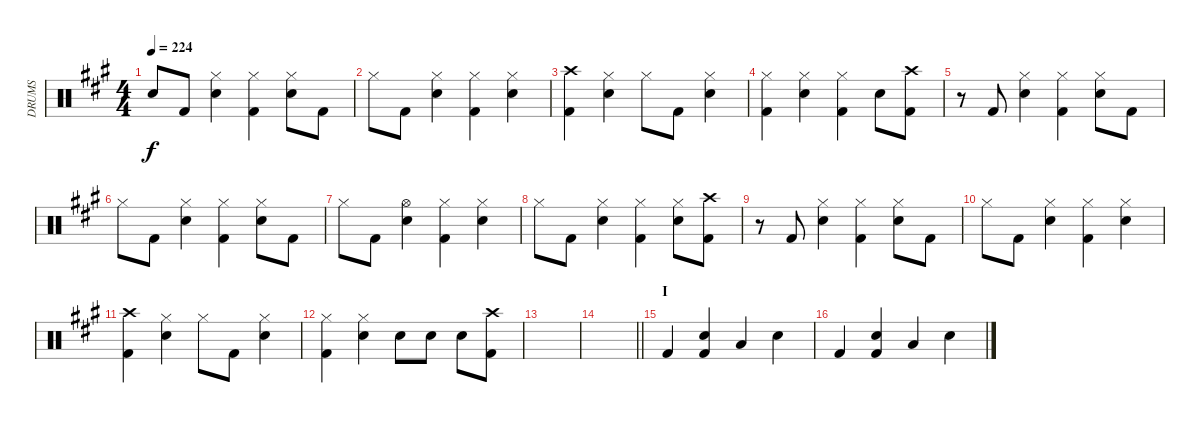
\track ("DRUMS" "DRUMS") {instrument percussion}
\staff {score}
\articulation defaults
\ts (4 4)
\tempo 224
\clef neutral
\ks a "Snare (hit)"{t}.8{dy f} "Kick (hit) 2".8
("Hi-Hat (closed)" "Snare (hit) 2").4 ("Hi-Hat (closed)" "Kick (hit) 2").4 ("Hi-Hat (closed)" "Snare (hit) 2").8 "Kick (hit) 2".8 |
"Hi-Hat (closed)".8 "Kick (hit) 2".8 ("Hi-Hat (closed)" "Snare (hit) 2").4 ("Hi-Hat (closed)" "Kick (hit) 2").4 ("Hi-Hat (closed)" "Snare (hit) 2").4 |
("Crash high (hit)" "Kick (hit) 2").4 ("Hi-Hat (closed)" "Snare (hit) 2").4 "Hi-Hat (closed)".8 "Kick (hit) 2".8 ("Hi-Hat (closed)" "Snare (hit) 2").4 |
("Hi-Hat (closed)" "Kick (hit) 2").4 ("Hi-Hat (closed)" "Snare (hit) 2").4 ("Hi-Hat (closed)" "Kick (hit) 2").4 "Snare (hit) 2".8 ("Crash high (hit)" "Kick (hit) 2").8 |
r.8 "Kick (hit) 2".8 ("Hi-Hat (closed)" "Snare (hit) 2").4 ("Hi-Hat (closed)" "Kick (hit) 2").4 ("Hi-Hat (closed)" "Snare (hit) 2").8 "Kick (hit) 2".8 |
"Hi-Hat (closed)".8 "Kick (hit) 2".8 ("Hi-Hat (closed)" "Snare (hit) 2").4 ("Hi-Hat (closed)" "Kick (hit) 2").4 ("Hi-Hat (closed)" "Snare (hit) 2").8 "Kick (hit) 2".8 |
"Hi-Hat (closed)".8 "Kick (hit) 2".8 ("Hi-Hat (open)" "Snare (hit) 2").4 ("Hi-Hat (closed)" "Kick (hit) 2").4 ("Hi-Hat (closed)" "Snare (hit) 2").4 |
"Hi-Hat (closed)".8 "Kick (hit) 2".8 ("Hi-Hat (closed)" "Snare (hit) 2").4 ("Hi-Hat (closed)" "Kick (hit) 2").4 ("Hi-Hat (closed)" "Snare (hit) 2").8 ("Crash high (hit)" "Kick (hit) 2").8 |
r.8 "Kick (hit) 2".8 ("Hi-Hat (closed)" "Snare (hit) 2").4 ("Hi-Hat (closed)" "Kick (hit) 2").4 ("Hi-Hat (closed)" "Snare (hit) 2").8 "Kick (hit) 2".8 |
"Hi-Hat (closed)".8 "Kick (hit) 2".8 ("Hi-Hat (closed)" "Snare (hit) 2").4 ("Hi-Hat (closed)" "Kick (hit) 2").4 ("Hi-Hat (closed)" "Snare (hit) 2").4 |
("Crash high (hit)" "Kick (hit) 2").4 ("Hi-Hat (closed)" "Snare (hit) 2").4 "Hi-Hat (closed)".8 "Kick (hit) 2".8 ("Hi-Hat (closed)" "Snare (hit) 2").4 |
("Hi-Hat (closed)" "Kick (hit) 2").4 ("Hi-Hat (closed)" "Snare (hit) 2").4 "Snare (hit) 2".8 "Snare (hit) 2".8 "Snare (hit) 2".8 ("Crash high (hit)" "Kick (hit) 2").8 |
|
\barLineRight lightlight
|
\section ("" "I")
"Kick (hit) 2".4{volume 8} ("Electric Snare (hit)" "Kick (hit) 2").4 "Low Floor Tom (hit)".4 "Electric Snare (hit)".4 |
"Kick (hit) 2".4 ("Electric Snare (hit)" "Kick (hit) 2").4 "Low Floor Tom (hit)".4 "Electric Snare (hit)".4
